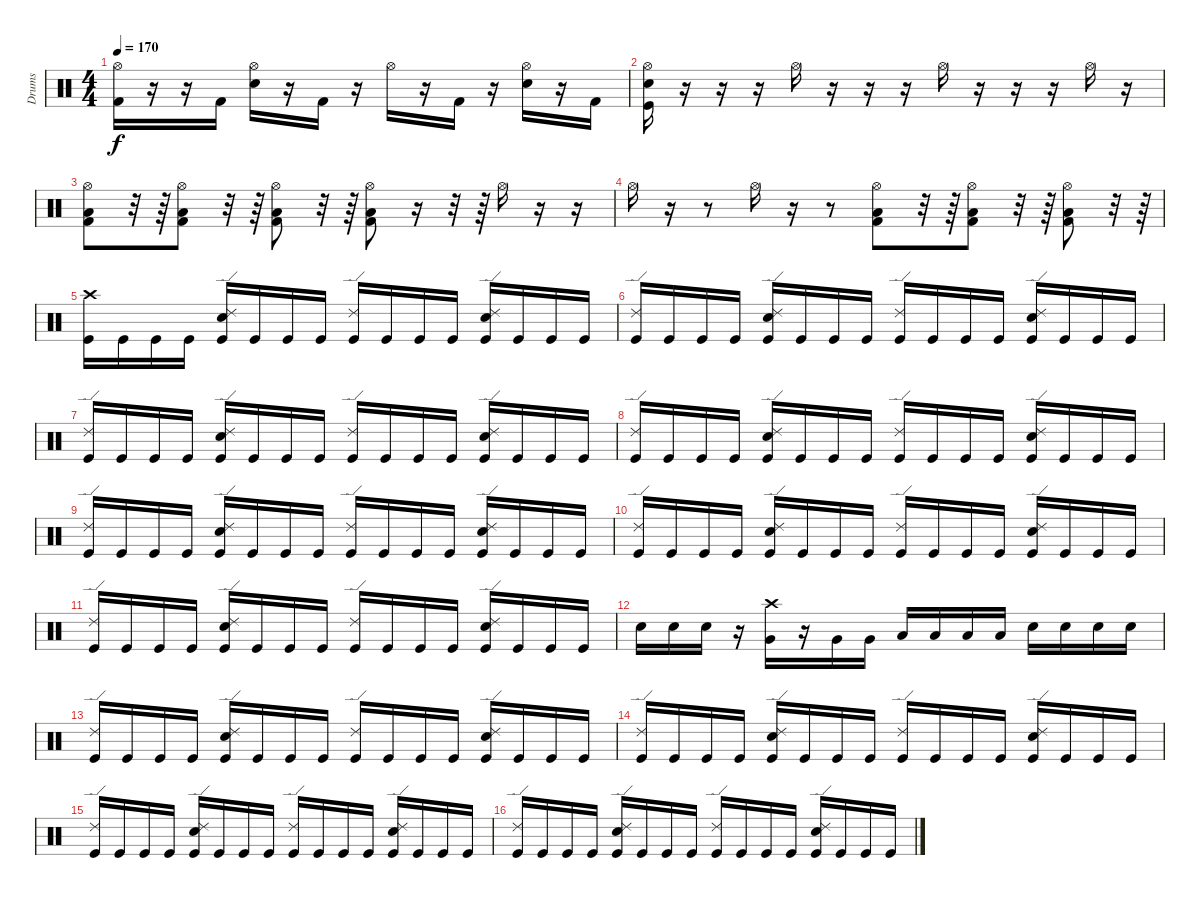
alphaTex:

\track ("Drums" "Drums") {instrument percussion}
\staff {score}
\articulation defaults
\ts (4 4)
\tempo 170
\clef neutral
\ks c
("Hi-Hat (open)" "Kick (hit) 2").16{dy f} r.16 r.16 "Kick (hit) 2".16 ("Hi-Hat (open)" "Electric Snare (hit)").16 r.16 "Kick (hit) 2".16 r.16 "Hi-Hat (open)".16 r.16 "Kick (hit) 2".16 r.16 ("Hi-Hat (open)" "Electric Snare (hit)").16 r.16 "Kick (hit) 2".16 |
("Hi-Hat (open)" "Electric Snare (hit)" "Kick (hit)").16 r.16 r.16 r.16 "Hi-Hat (open)".16 r.16 r.16 r.16 "Hi-Hat (open)".16 r.16 r.16 r.16 "Hi-Hat (open)".16 r.16 |
("Hi-Hat (open)" "Low Floor Tom (hit)" "Kick (hit) 2").8 r.32 r.64 ("Hi-Hat (open)" "Low Floor Tom (hit)" "Kick (hit) 2").8 r.32 r.64 ("Hi-Hat (open)" "Low Floor Tom (hit)" "Kick (hit) 2").8 r.32 r.64 ("Hi-Hat (open)" "Low Floor Tom (hit)" "Kick (hit) 2").8 r.16 r.32 r.64 "Hi-Hat (open)".16 r.16 r.16 |
"Hi-Hat (open)".16 r.16 r.8 "Hi-Hat (open)".16 r.16 r.8 ("Hi-Hat (open)" "Low Floor Tom (hit)" "Kick (hit) 2").8 r.32 r.64 ("Hi-Hat (open)" "Low Floor Tom (hit)" "Kick (hit) 2").8 r.32 r.64 ("Hi-Hat (open)" "Low Floor Tom (hit)" "Kick (hit) 2").8 r.32 r.64 |
("Crash high (hit)" "Kick (hit)").16 "Kick (hit)".16 "Kick (hit)".16 "Kick (hit)".16 ("Ride (edge) 2" "Electric Snare (hit)" "Kick (hit)").16 "Kick (hit)".16 "Kick (hit)".16 "Kick (hit)".16 ("Ride (edge) 2" "Kick (hit)").16 "Kick (hit)".16 "Kick (hit)".16 "Kick (hit)".16 ("Ride (edge) 2" "Electric Snare (hit)" "Kick (hit)").16 "Kick (hit)".16 "Kick (hit)".16 "Kick (hit)".16 |
("Ride (edge) 2" "Kick (hit)").16 "Kick (hit)".16 "Kick (hit)".16 "Kick (hit)".16 ("Ride (edge) 2" "Electric Snare (hit)" "Kick (hit)").16 "Kick (hit)".16 "Kick (hit)".16 "Kick (hit)".16 ("Ride (edge) 2" "Kick (hit)").16 "Kick (hit)".16 "Kick (hit)".16 "Kick (hit)".16 ("Ride (edge) 2" "Electric Snare (hit)" "Kick (hit)").16 "Kick (hit)".16 "Kick (hit)".16 "Kick (hit)".16 |
("Ride (edge) 2" "Kick (hit)").16 "Kick (hit)".16 "Kick (hit)".16 "Kick (hit)".16 ("Ride (edge) 2" "Electric Snare (hit)" "Kick (hit)").16 "Kick (hit)".16 "Kick (hit)".16 "Kick (hit)".16 ("Ride (edge) 2" "Kick (hit)").16 "Kick (hit)".16 "Kick (hit)".16 "Kick (hit)".16 ("Ride (edge) 2" "Electric Snare (hit)" "Kick (hit)").16 "Kick (hit)".16 "Kick (hit)".16 "Kick (hit)".16 |
("Ride (edge) 2" "Kick (hit)").16 "Kick (hit)".16 "Kick (hit)".16 "Kick (hit)".16 ("Ride (edge) 2" "Electric Snare (hit)" "Kick (hit)").16 "Kick (hit)".16 "Kick (hit)".16 "Kick (hit)".16 ("Ride (edge) 2" "Kick (hit)").16 "Kick (hit)".16 "Kick (hit)".16 "Kick (hit)".16 ("Ride (edge) 2" "Electric Snare (hit)" "Kick (hit)").16 "Kick (hit)".16 "Kick (hit)".16 "Kick (hit)".16 |
("Ride (edge) 2" "Kick (hit)").16 "Kick (hit)".16 "Kick (hit)".16 "Kick (hit)".16 ("Ride (edge) 2" "Electric Snare (hit)" "Kick (hit)").16 "Kick (hit)".16 "Kick (hit)".16 "Kick (hit)".16 ("Ride (edge) 2" "Kick (hit)").16 "Kick (hit)".16 "Kick (hit)".16 "Kick (hit)".16 ("Ride (edge) 2" "Electric Snare (hit)" "Kick (hit)").16 "Kick (hit)".16 "Kick (hit)".16 "Kick (hit)".16 |
("Ride (edge) 2" "Kick (hit)").16 "Kick (hit)".16 "Kick (hit)".16 "Kick (hit)".16 ("Ride (edge) 2" "Electric Snare (hit)" "Kick (hit)").16 "Kick (hit)".16 "Kick (hit)".16 "Kick (hit)".16 ("Ride (edge) 2" "Kick (hit)").16 "Kick (hit)".16 "Kick (hit)".16 "Kick (hit)".16 ("Ride (edge) 2" "Electric Snare (hit)" "Kick (hit)").16 "Kick (hit)".16 "Kick (hit)".16 "Kick (hit)".16 |
("Ride (edge) 2" "Kick (hit)").16 "Kick (hit)".16 "Kick (hit)".16 "Kick (hit)".16 ("Ride (edge) 2" "Electric Snare (hit)" "Kick (hit)").16 "Kick (hit)".16 "Kick (hit)".16 "Kick (hit)".16 ("Ride (edge) 2" "Kick (hit)").16 "Kick (hit)".16 "Kick (hit)".16 "Kick (hit)".16 ("Ride (edge) 2" "Electric Snare (hit)" "Kick (hit)").16 "Kick (hit)".16 "Kick (hit)".16 "Kick (hit)".16 |
"Electric Snare (hit)".16 "Electric Snare (hit)".16 "Electric Snare (hit)".16 r.16 ("Crash high (hit)" "Very Low Tom (hit)").16 r.16 "Very Low Tom (hit)".16 "Very Low Tom (hit)".16 "Low Tom (hit)".16 "Low Tom (hit)".16 "Low Tom (hit)".16 "Low Tom (hit)".16 "Electric Snare (hit)".16 "Electric Snare (hit)".16 "Electric Snare (hit)".16 "Electric Snare (hit)".16 |
("Ride (edge) 2" "Kick (hit)").16 "Kick (hit)".16 "Kick (hit)".16 "Kick (hit)".16 ("Ride (edge) 2" "Electric Snare (hit)" "Kick (hit)").16 "Kick (hit)".16 "Kick (hit)".16 "Kick (hit)".16 ("Ride (edge) 2" "Kick (hit)").16 "Kick (hit)".16 "Kick (hit)".16 "Kick (hit)".16 ("Ride (edge) 2" "Electric Snare (hit)" "Kick (hit)").16 "Kick (hit)".16 "Kick (hit)".16 "Kick (hit)".16 |
("Ride (edge) 2" "Kick (hit)").16 "Kick (hit)".16 "Kick (hit)".16 "Kick (hit)".16 ("Ride (edge) 2" "Electric Snare (hit)" "Kick (hit)").16 "Kick (hit)".16 "Kick (hit)".16 "Kick (hit)".16 ("Ride (edge) 2" "Kick (hit)").16 "Kick (hit)".16 "Kick (hit)".16 "Kick (hit)".16 ("Ride (edge) 2" "Electric Snare (hit)" "Kick (hit)").16 "Kick (hit)".16 "Kick (hit)".16 "Kick (hit)".16 |
("Ride (edge) 2" "Kick (hit)").16 "Kick (hit)".16 "Kick (hit)".16 "Kick (hit)".16 ("Ride (edge) 2" "Electric Snare (hit)" "Kick (hit)").16 "Kick (hit)".16 "Kick (hit)".16 "Kick (hit)".16 ("Ride (edge) 2" "Kick (hit)").16 "Kick (hit)".16 "Kick (hit)".16 "Kick (hit)".16 ("Ride (edge) 2" "Electric Snare (hit)" "Kick (hit)").16 "Kick (hit)".16 "Kick (hit)".16 "Kick (hit)".16 |
("Ride (edge) 2" "Kick (hit)").16 "Kick (hit)".16 "Kick (hit)".16 "Kick (hit)".16 ("Ride (edge) 2" "Electric Snare (hit)" "Kick (hit)").16 "Kick (hit)".16 "Kick (hit)".16 "Kick (hit)".16 ("Ride (edge) 2" "Kick (hit)").16 "Kick (hit)".16 "Kick (hit)".16 "Kick (hit)".16 ("Ride (edge) 2" "Electric Snare (hit)" "Kick (hit)").16 "Kick (hit)".16 "Kick (hit)".16 "Kick (hit)".16
